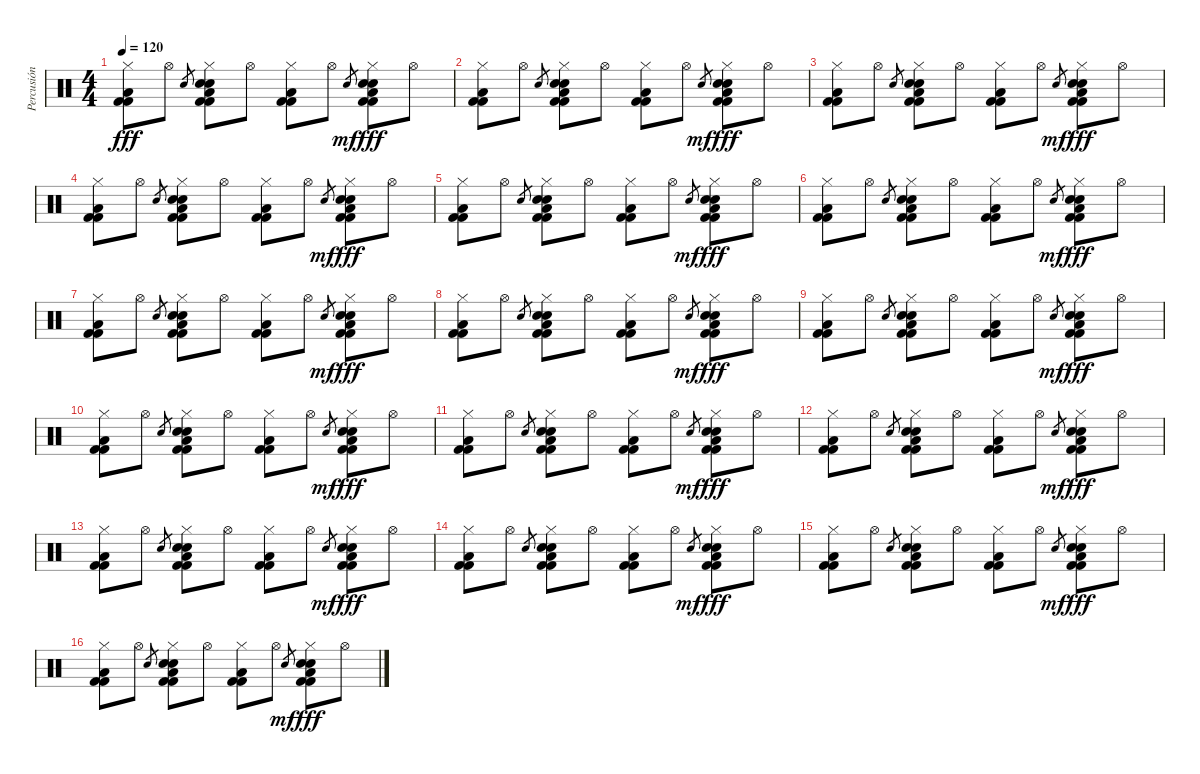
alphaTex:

\track ("Percusión I" "Percusión ") {instrument percussion}
\staff {score}
\articulation defaults
\ts (4 4)
\tempo 120
\clef neutral
\ks c
("Kick (hit) 2" "Hi-Hat (closed)" "Low Floor Tom (hit)" "Kick (hit) 2").8{dy fff} "Hi-Hat (open)".8 "Hand Clap (hit)".8{gr} ("Kick (hit) 2" "Hi-Hat (closed)" "Electric Snare (hit)" "Hand Clap (hit)" "Low Floor Tom (hit)" "Kick (hit) 2").8 "Hi-Hat (open)".8 ("Kick (hit) 2" "Hi-Hat (closed)" "Low Floor Tom (hit)" "Kick (hit) 2").8 "Hi-Hat (open)".8 "Hand Clap (hit)".8{gr dy mf} ("Kick (hit) 2" "Hi-Hat (closed)" "Electric Snare (hit)" "Hand Clap (hit)" "Low Floor Tom (hit)" "Kick (hit) 2").8{dy fff} "Hi-Hat (open)".8 |
("Kick (hit) 2" "Hi-Hat (closed)" "Low Floor Tom (hit)" "Kick (hit) 2").8 "Hi-Hat (open)".8 "Hand Clap (hit)".8{gr} ("Kick (hit) 2" "Hi-Hat (closed)" "Electric Snare (hit)" "Hand Clap (hit)" "Low Floor Tom (hit)" "Kick (hit) 2").8 "Hi-Hat (open)".8 ("Kick (hit) 2" "Hi-Hat (closed)" "Low Floor Tom (hit)" "Kick (hit) 2").8 "Hi-Hat (open)".8 "Hand Clap (hit)".8{gr dy mf} ("Kick (hit) 2" "Hi-Hat (closed)" "Electric Snare (hit)" "Hand Clap (hit)" "Low Floor Tom (hit)" "Kick (hit) 2").8{dy fff} "Hi-Hat (open)".8 |
("Kick (hit) 2" "Hi-Hat (closed)" "Low Floor Tom (hit)" "Kick (hit) 2").8 "Hi-Hat (open)".8 "Hand Clap (hit)".8{gr} ("Kick (hit) 2" "Hi-Hat (closed)" "Electric Snare (hit)" "Hand Clap (hit)" "Low Floor Tom (hit)" "Kick (hit) 2").8 "Hi-Hat (open)".8 ("Kick (hit) 2" "Hi-Hat (closed)" "Low Floor Tom (hit)" "Kick (hit) 2").8 "Hi-Hat (open)".8 "Hand Clap (hit)".8{gr dy mf} ("Kick (hit) 2" "Hi-Hat (closed)" "Electric Snare (hit)" "Hand Clap (hit)" "Low Floor Tom (hit)" "Kick (hit) 2").8{dy fff} "Hi-Hat (open)".8 |
("Kick (hit) 2" "Hi-Hat (closed)" "Low Floor Tom (hit)" "Kick (hit) 2").8 "Hi-Hat (open)".8 "Hand Clap (hit)".8{gr} ("Kick (hit) 2" "Hi-Hat (closed)" "Electric Snare (hit)" "Hand Clap (hit)" "Low Floor Tom (hit)" "Kick (hit) 2").8 "Hi-Hat (open)".8 ("Kick (hit) 2" "Hi-Hat (closed)" "Low Floor Tom (hit)" "Kick (hit) 2").8 "Hi-Hat (open)".8 "Hand Clap (hit)".8{gr dy mf} ("Kick (hit) 2" "Hi-Hat (closed)" "Electric Snare (hit)" "Hand Clap (hit)" "Low Floor Tom (hit)" "Kick (hit) 2").8{dy fff} "Hi-Hat (open)".8 |
("Kick (hit) 2" "Hi-Hat (closed)" "Low Floor Tom (hit)" "Kick (hit) 2").8 "Hi-Hat (open)".8 "Hand Clap (hit)".8{gr} ("Kick (hit) 2" "Hi-Hat (closed)" "Electric Snare (hit)" "Hand Clap (hit)" "Low Floor Tom (hit)" "Kick (hit) 2").8 "Hi-Hat (open)".8 ("Kick (hit) 2" "Hi-Hat (closed)" "Low Floor Tom (hit)" "Kick (hit) 2").8 "Hi-Hat (open)".8 "Hand Clap (hit)".8{gr dy mf} ("Kick (hit) 2" "Hi-Hat (closed)" "Electric Snare (hit)" "Hand Clap (hit)" "Low Floor Tom (hit)" "Kick (hit) 2").8{dy fff} "Hi-Hat (open)".8 |
("Kick (hit) 2" "Hi-Hat (closed)" "Low Floor Tom (hit)" "Kick (hit) 2").8 "Hi-Hat (open)".8 "Hand Clap (hit)".8{gr} ("Kick (hit) 2" "Hi-Hat (closed)" "Electric Snare (hit)" "Hand Clap (hit)" "Low Floor Tom (hit)" "Kick (hit) 2").8 "Hi-Hat (open)".8 ("Kick (hit) 2" "Hi-Hat (closed)" "Low Floor Tom (hit)" "Kick (hit) 2").8 "Hi-Hat (open)".8 "Hand Clap (hit)".8{gr dy mf} ("Kick (hit) 2" "Hi-Hat (closed)" "Electric Snare (hit)" "Hand Clap (hit)" "Low Floor Tom (hit)" "Kick (hit) 2").8{dy fff} "Hi-Hat (open)".8 |
("Kick (hit) 2" "Hi-Hat (closed)" "Low Floor Tom (hit)" "Kick (hit) 2").8 "Hi-Hat (open)".8 "Hand Clap (hit)".8{gr} ("Kick (hit) 2" "Hi-Hat (closed)" "Electric Snare (hit)" "Hand Clap (hit)" "Low Floor Tom (hit)" "Kick (hit) 2").8 "Hi-Hat (open)".8 ("Kick (hit) 2" "Hi-Hat (closed)" "Low Floor Tom (hit)" "Kick (hit) 2").8 "Hi-Hat (open)".8 "Hand Clap (hit)".8{gr dy mf} ("Kick (hit) 2" "Hi-Hat (closed)" "Electric Snare (hit)" "Hand Clap (hit)" "Low Floor Tom (hit)" "Kick (hit) 2").8{dy fff} "Hi-Hat (open)".8 |
("Kick (hit) 2" "Hi-Hat (closed)" "Low Floor Tom (hit)" "Kick (hit) 2").8 "Hi-Hat (open)".8 "Hand Clap (hit)".8{gr} ("Kick (hit) 2" "Hi-Hat (closed)" "Electric Snare (hit)" "Hand Clap (hit)" "Low Floor Tom (hit)" "Kick (hit) 2").8 "Hi-Hat (open)".8 ("Kick (hit) 2" "Hi-Hat (closed)" "Low Floor Tom (hit)" "Kick (hit) 2").8 "Hi-Hat (open)".8 "Hand Clap (hit)".8{gr dy mf} ("Kick (hit) 2" "Hi-Hat (closed)" "Electric Snare (hit)" "Hand Clap (hit)" "Low Floor Tom (hit)" "Kick (hit) 2").8{dy fff} "Hi-Hat (open)".8 |
("Kick (hit) 2" "Hi-Hat (closed)" "Low Floor Tom (hit)" "Kick (hit) 2").8 "Hi-Hat (open)".8 "Hand Clap (hit)".8{gr} ("Kick (hit) 2" "Hi-Hat (closed)" "Electric Snare (hit)" "Hand Clap (hit)" "Low Floor Tom (hit)" "Kick (hit) 2").8 "Hi-Hat (open)".8 ("Kick (hit) 2" "Hi-Hat (closed)" "Low Floor Tom (hit)" "Kick (hit) 2").8 "Hi-Hat (open)".8 "Hand Clap (hit)".8{gr dy mf} ("Kick (hit) 2" "Hi-Hat (closed)" "Electric Snare (hit)" "Hand Clap (hit)" "Low Floor Tom (hit)" "Kick (hit) 2").8{dy fff} "Hi-Hat (open)".8 |
("Kick (hit) 2" "Hi-Hat (closed)" "Low Floor Tom (hit)" "Kick (hit) 2").8 "Hi-Hat (open)".8 "Hand Clap (hit)".8{gr} ("Kick (hit) 2" "Hi-Hat (closed)" "Electric Snare (hit)" "Hand Clap (hit)" "Low Floor Tom (hit)" "Kick (hit) 2").8 "Hi-Hat (open)".8 ("Kick (hit) 2" "Hi-Hat (closed)" "Low Floor Tom (hit)" "Kick (hit) 2").8 "Hi-Hat (open)".8 "Hand Clap (hit)".8{gr dy mf} ("Kick (hit) 2" "Hi-Hat (closed)" "Electric Snare (hit)" "Hand Clap (hit)" "Low Floor Tom (hit)" "Kick (hit) 2").8{dy fff} "Hi-Hat (open)".8 |
("Kick (hit) 2" "Hi-Hat (closed)" "Low Floor Tom (hit)" "Kick (hit) 2").8 "Hi-Hat (open)".8 "Hand Clap (hit)".8{gr} ("Kick (hit) 2" "Hi-Hat (closed)" "Electric Snare (hit)" "Hand Clap (hit)" "Low Floor Tom (hit)" "Kick (hit) 2").8 "Hi-Hat (open)".8 ("Kick (hit) 2" "Hi-Hat (closed)" "Low Floor Tom (hit)" "Kick (hit) 2").8 "Hi-Hat (open)".8 "Hand Clap (hit)".8{gr dy mf} ("Kick (hit) 2" "Hi-Hat (closed)" "Electric Snare (hit)" "Hand Clap (hit)" "Low Floor Tom (hit)" "Kick (hit) 2").8{dy fff} "Hi-Hat (open)".8 |
("Kick (hit) 2" "Hi-Hat (closed)" "Low Floor Tom (hit)" "Kick (hit) 2").8 "Hi-Hat (open)".8 "Hand Clap (hit)".8{gr} ("Kick (hit) 2" "Hi-Hat (closed)" "Electric Snare (hit)" "Hand Clap (hit)" "Low Floor Tom (hit)" "Kick (hit) 2").8 "Hi-Hat (open)".8 ("Kick (hit) 2" "Hi-Hat (closed)" "Low Floor Tom (hit)" "Kick (hit) 2").8 "Hi-Hat (open)".8 "Hand Clap (hit)".8{gr dy mf} ("Kick (hit) 2" "Hi-Hat (closed)" "Electric Snare (hit)" "Hand Clap (hit)" "Low Floor Tom (hit)" "Kick (hit) 2").8{dy fff} "Hi-Hat (open)".8 |
("Kick (hit) 2" "Hi-Hat (closed)" "Low Floor Tom (hit)" "Kick (hit) 2").8 "Hi-Hat (open)".8 "Hand Clap (hit)".8{gr} ("Kick (hit) 2" "Hi-Hat (closed)" "Electric Snare (hit)" "Hand Clap (hit)" "Low Floor Tom (hit)" "Kick (hit) 2").8 "Hi-Hat (open)".8 ("Kick (hit) 2" "Hi-Hat (closed)" "Low Floor Tom (hit)" "Kick (hit) 2").8 "Hi-Hat (open)".8 "Hand Clap (hit)".8{gr dy mf} ("Kick (hit) 2" "Hi-Hat (closed)" "Electric Snare (hit)" "Hand Clap (hit)" "Low Floor Tom (hit)" "Kick (hit) 2").8{dy fff} "Hi-Hat (open)".8 |
("Kick (hit) 2" "Hi-Hat (closed)" "Low Floor Tom (hit)" "Kick (hit) 2").8 "Hi-Hat (open)".8 "Hand Clap (hit)".8{gr} ("Kick (hit) 2" "Hi-Hat (closed)" "Electric Snare (hit)" "Hand Clap (hit)" "Low Floor Tom (hit)" "Kick (hit) 2").8 "Hi-Hat (open)".8 ("Kick (hit) 2" "Hi-Hat (closed)" "Low Floor Tom (hit)" "Kick (hit) 2").8 "Hi-Hat (open)".8 "Hand Clap (hit)".8{gr dy mf} ("Kick (hit) 2" "Hi-Hat (closed)" "Electric Snare (hit)" "Hand Clap (hit)" "Low Floor Tom (hit)" "Kick (hit) 2").8{dy fff} "Hi-Hat (open)".8 |
("Kick (hit) 2" "Hi-Hat (closed)" "Low Floor Tom (hit)" "Kick (hit) 2").8 "Hi-Hat (open)".8 "Hand Clap (hit)".8{gr} ("Kick (hit) 2" "Hi-Hat (closed)" "Electric Snare (hit)" "Hand Clap (hit)" "Low Floor Tom (hit)" "Kick (hit) 2").8 "Hi-Hat (open)".8 ("Kick (hit) 2" "Hi-Hat (closed)" "Low Floor Tom (hit)" "Kick (hit) 2").8 "Hi-Hat (open)".8 "Hand Clap (hit)".8{gr dy mf} ("Kick (hit) 2" "Hi-Hat (closed)" "Electric Snare (hit)" "Hand Clap (hit)" "Low Floor Tom (hit)" "Kick (hit) 2").8{dy fff} "Hi-Hat (open)".8 |
("Kick (hit) 2" "Hi-Hat (closed)" "Low Floor Tom (hit)" "Kick (hit) 2").8 "Hi-Hat (open)".8 "Hand Clap (hit)".8{gr} ("Kick (hit) 2" "Hi-Hat (closed)" "Electric Snare (hit)" "Hand Clap (hit)" "Low Floor Tom (hit)" "Kick (hit) 2").8 "Hi-Hat (open)".8 ("Kick (hit) 2" "Hi-Hat (closed)" "Low Floor Tom (hit)" "Kick (hit) 2").8 "Hi-Hat (open)".8 "Hand Clap (hit)".8{gr dy mf} ("Kick (hit) 2" "Hi-Hat (closed)" "Electric Snare (hit)" "Hand Clap (hit)" "Low Floor Tom (hit)" "Kick (hit) 2").8{dy fff} "Hi-Hat (open)".8
